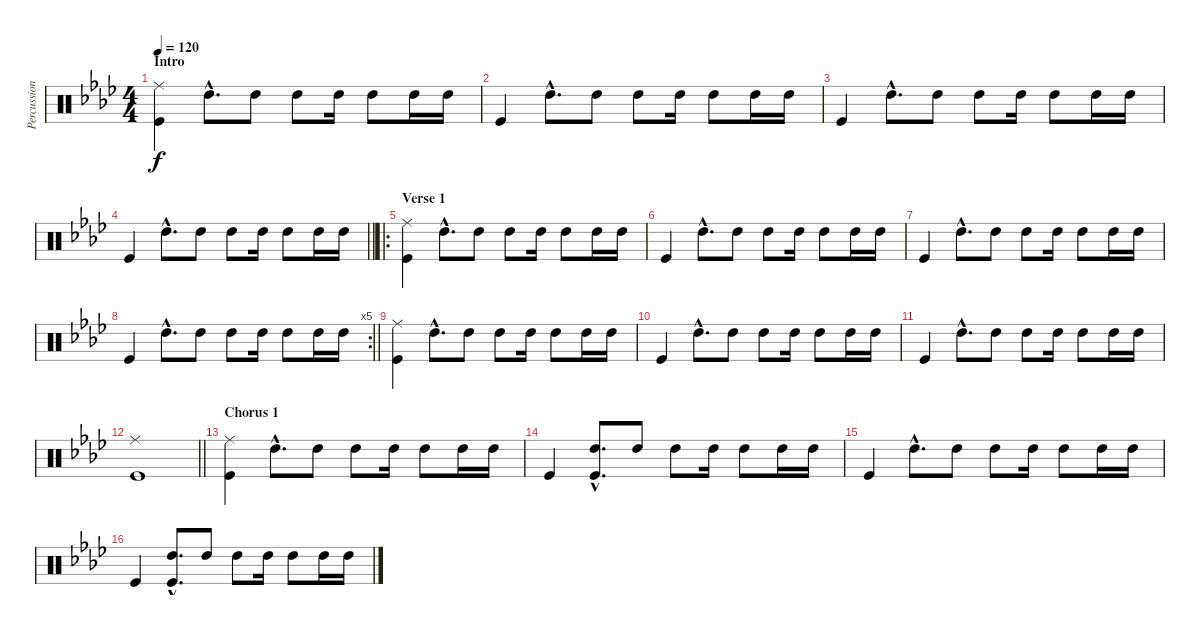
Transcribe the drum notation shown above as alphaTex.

\track ("Percussion" "Percussion") {instrument percussion}
\staff {score}
\articulation defaults
\ts (4 4)
\section ("" "Intro")
\tempo 120
\clef neutral
\ks fminor
("Ride (middle)" "Kick (hit)").4{dy f} "High Tom (hit)"{hac}.8{d} "High Tom (hit)".8 "High Tom (hit)".8 "High Tom (hit)".16 "High Tom (hit)".8 "High Tom (hit)".16 "High Tom (hit)".16 |
"Kick (hit)".4 "High Tom (hit)"{hac}.8{d} "High Tom (hit)".8 "High Tom (hit)".8 "High Tom (hit)".16 "High Tom (hit)".8 "High Tom (hit)".16 "High Tom (hit)".16 |
"Kick (hit)".4 "High Tom (hit)"{hac}.8{d} "High Tom (hit)".8 "High Tom (hit)".8 "High Tom (hit)".16 "High Tom (hit)".8 "High Tom (hit)".16 "High Tom (hit)".16 |
\barLineRight lightlight "Kick (hit)".4 "High Tom (hit)"{hac}.8{d} "High Tom (hit)".8 "High Tom (hit)".8 "High Tom (hit)".16 "High Tom (hit)".8 "High Tom (hit)".16 "High Tom (hit)".16
|
\ro
\section ("" "Verse 1")
("Ride (middle)" "Kick (hit)").4 "High Tom (hit)"{hac}.8{d} "High Tom (hit)".8 "High Tom (hit)".8 "High Tom (hit)".16 "High Tom (hit)".8 "High Tom (hit)".16 "High Tom (hit)".16 |
"Kick (hit)".4 "High Tom (hit)"{hac}.8{d} "High Tom (hit)".8 "High Tom (hit)".8 "High Tom (hit)".16 "High Tom (hit)".8 "High Tom (hit)".16 "High Tom (hit)".16 |
"Kick (hit)".4 "High Tom (hit)"{hac}.8{d} "High Tom (hit)".8 "High Tom (hit)".8 "High Tom (hit)".16 "High Tom (hit)".8 "High Tom (hit)".16 "High Tom (hit)".16 |
\rc 5
\barLineRight lightlight "Kick (hit)".4 "High Tom (hit)"{hac}.8{d} "High Tom (hit)".8 "High Tom (hit)".8 "High Tom (hit)".16 "High Tom (hit)".8 "High Tom (hit)".16 "High Tom (hit)".16
|
("Ride (middle)" "Kick (hit)").4 "High Tom (hit)"{hac}.8{d} "High Tom (hit)".8 "High Tom (hit)".8 "High Tom (hit)".16 "High Tom (hit)".8 "High Tom (hit)".16 "High Tom (hit)".16 |
"Kick (hit)".4 "High Tom (hit)"{hac}.8{d} "High Tom (hit)".8 "High Tom (hit)".8 "High Tom (hit)".16 "High Tom (hit)".8 "High Tom (hit)".16 "High Tom (hit)".16 |
"Kick (hit)".4 "High Tom (hit)"{hac}.8{d} "High Tom (hit)".8 "High Tom (hit)".8 "High Tom (hit)".16 "High Tom (hit)".8 "High Tom (hit)".16 "High Tom (hit)".16 |
\barLineRight lightlight
("Ride (middle)" "Kick (hit)").1 |
\section ("" "Chorus 1")
("Ride (middle)" "Kick (hit)").4 "High Tom (hit)"{hac}.8{d} "High Tom (hit)".8 "High Tom (hit)".8 "High Tom (hit)".16 "High Tom (hit)".8 "High Tom (hit)".16 "High Tom (hit)".16 |
"Kick (hit)".4 ("High Tom (hit)"{hac} "Kick (hit)"{hac}).8{d} "High Tom (hit)".8 "High Tom (hit)".8 "High Tom (hit)".16 "High Tom (hit)".8 "High Tom (hit)".16 "High Tom (hit)".16 |
"Kick (hit)".4 "High Tom (hit)"{hac}.8{d} "High Tom (hit)".8 "High Tom (hit)".8 "High Tom (hit)".16 "High Tom (hit)".8 "High Tom (hit)".16 "High Tom (hit)".16 |
"Kick (hit)".4 ("High Tom (hit)"{hac} "Kick (hit)"{hac}).8{d} "High Tom (hit)".8 "High Tom (hit)".8 "High Tom (hit)".16 "High Tom (hit)".8 "High Tom (hit)".16 "High Tom (hit)".16
